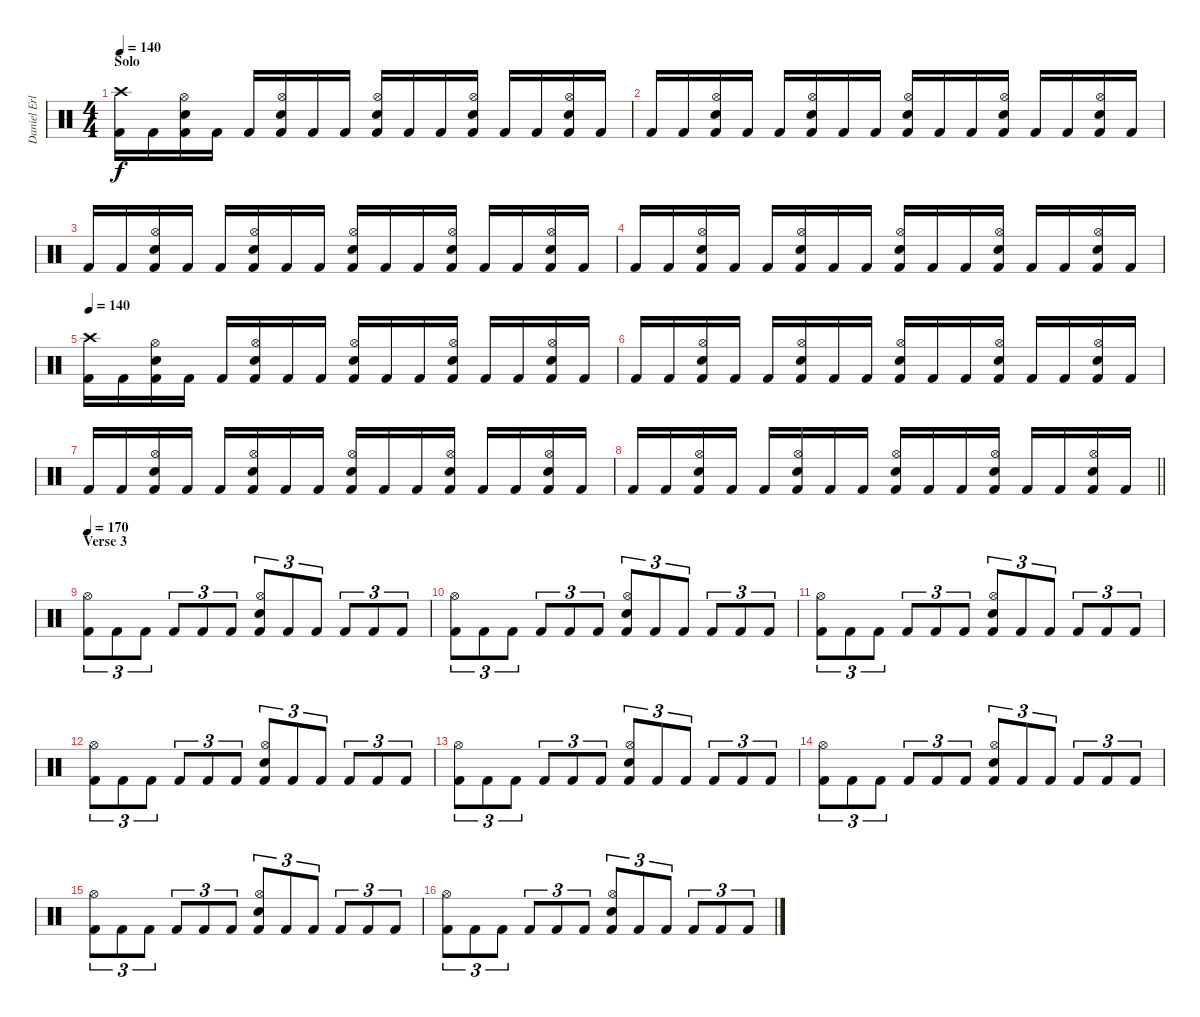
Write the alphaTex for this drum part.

\track ("Daniel Erlandsson" "Daniel Erl") {instrument percussion}
\staff {score}
\articulation defaults
\ts (4 4)
\section ("" "Solo")
\tempo 140
\clef neutral
\ks c
("Crash high (hit)" "Kick (hit) 2").16{dy f} "Kick (hit) 2".16 ("Hi-Hat (open)" "Snare (hit) 2" "Kick (hit) 2").16 "Kick (hit) 2".16 "Kick (hit) 2".16 ("Hi-Hat (open)" "Snare (hit) 2" "Kick (hit) 2").16 "Kick (hit) 2".16 "Kick (hit) 2".16 ("Hi-Hat (open)" "Snare (hit) 2" "Kick (hit) 2").16 "Kick (hit) 2".16 "Kick (hit) 2".16 ("Hi-Hat (open)" "Snare (hit) 2" "Kick (hit) 2").16 "Kick (hit) 2".16 "Kick (hit) 2".16 ("Hi-Hat (open)" "Snare (hit) 2" "Kick (hit) 2").16 "Kick (hit) 2".16 |
"Kick (hit) 2".16 "Kick (hit) 2".16 ("Hi-Hat (open)" "Snare (hit) 2" "Kick (hit) 2").16 "Kick (hit) 2".16 "Kick (hit) 2".16 ("Hi-Hat (open)" "Snare (hit) 2" "Kick (hit) 2").16 "Kick (hit) 2".16 "Kick (hit) 2".16 ("Hi-Hat (open)" "Snare (hit) 2" "Kick (hit) 2").16 "Kick (hit) 2".16 "Kick (hit) 2".16 ("Hi-Hat (open)" "Snare (hit) 2" "Kick (hit) 2").16 "Kick (hit) 2".16 "Kick (hit) 2".16 ("Hi-Hat (open)" "Snare (hit) 2" "Kick (hit) 2").16 "Kick (hit) 2".16 |
"Kick (hit) 2".16 "Kick (hit) 2".16 ("Hi-Hat (open)" "Snare (hit) 2" "Kick (hit) 2").16 "Kick (hit) 2".16 "Kick (hit) 2".16 ("Hi-Hat (open)" "Snare (hit) 2" "Kick (hit) 2").16 "Kick (hit) 2".16 "Kick (hit) 2".16 ("Hi-Hat (open)" "Snare (hit) 2" "Kick (hit) 2").16 "Kick (hit) 2".16 "Kick (hit) 2".16 ("Hi-Hat (open)" "Snare (hit) 2" "Kick (hit) 2").16 "Kick (hit) 2".16 "Kick (hit) 2".16 ("Hi-Hat (open)" "Snare (hit) 2" "Kick (hit) 2").16 "Kick (hit) 2".16 |
"Kick (hit) 2".16 "Kick (hit) 2".16 ("Hi-Hat (open)" "Snare (hit) 2" "Kick (hit) 2").16 "Kick (hit) 2".16 "Kick (hit) 2".16 ("Hi-Hat (open)" "Snare (hit) 2" "Kick (hit) 2").16 "Kick (hit) 2".16 "Kick (hit) 2".16 ("Hi-Hat (open)" "Snare (hit) 2" "Kick (hit) 2").16 "Kick (hit) 2".16 "Kick (hit) 2".16 ("Hi-Hat (open)" "Snare (hit) 2" "Kick (hit) 2").16 "Kick (hit) 2".16 "Kick (hit) 2".16 ("Hi-Hat (open)" "Snare (hit) 2" "Kick (hit) 2").16 "Kick (hit) 2".16 |
\tempo 140
("Crash high (hit)" "Kick (hit) 2").16 "Kick (hit) 2".16 ("Hi-Hat (open)" "Snare (hit) 2" "Kick (hit) 2").16 "Kick (hit) 2".16 "Kick (hit) 2".16 ("Hi-Hat (open)" "Snare (hit) 2" "Kick (hit) 2").16 "Kick (hit) 2".16 "Kick (hit) 2".16 ("Hi-Hat (open)" "Snare (hit) 2" "Kick (hit) 2").16 "Kick (hit) 2".16 "Kick (hit) 2".16 ("Hi-Hat (open)" "Snare (hit) 2" "Kick (hit) 2").16 "Kick (hit) 2".16 "Kick (hit) 2".16 ("Hi-Hat (open)" "Snare (hit) 2" "Kick (hit) 2").16 "Kick (hit) 2".16 |
"Kick (hit) 2".16 "Kick (hit) 2".16 ("Hi-Hat (open)" "Snare (hit) 2" "Kick (hit) 2").16 "Kick (hit) 2".16 "Kick (hit) 2".16 ("Hi-Hat (open)" "Snare (hit) 2" "Kick (hit) 2").16 "Kick (hit) 2".16 "Kick (hit) 2".16 ("Hi-Hat (open)" "Snare (hit) 2" "Kick (hit) 2").16 "Kick (hit) 2".16 "Kick (hit) 2".16 ("Hi-Hat (open)" "Snare (hit) 2" "Kick (hit) 2").16 "Kick (hit) 2".16 "Kick (hit) 2".16 ("Hi-Hat (open)" "Snare (hit) 2" "Kick (hit) 2").16 "Kick (hit) 2".16 |
"Kick (hit) 2".16 "Kick (hit) 2".16 ("Hi-Hat (open)" "Snare (hit) 2" "Kick (hit) 2").16 "Kick (hit) 2".16 "Kick (hit) 2".16 ("Hi-Hat (open)" "Snare (hit) 2" "Kick (hit) 2").16 "Kick (hit) 2".16 "Kick (hit) 2".16 ("Hi-Hat (open)" "Snare (hit) 2" "Kick (hit) 2").16 "Kick (hit) 2".16 "Kick (hit) 2".16 ("Hi-Hat (open)" "Snare (hit) 2" "Kick (hit) 2").16 "Kick (hit) 2".16 "Kick (hit) 2".16 ("Hi-Hat (open)" "Snare (hit) 2" "Kick (hit) 2").16 "Kick (hit) 2".16 |
\barLineRight lightlight "Kick (hit) 2".16 "Kick (hit) 2".16
("Hi-Hat (open)" "Snare (hit) 2" "Kick (hit) 2").16 "Kick (hit) 2".16 "Kick (hit) 2".16 ("Hi-Hat (open)" "Snare (hit) 2" "Kick (hit) 2").16 "Kick (hit) 2".16 "Kick (hit) 2".16 ("Hi-Hat (open)" "Snare (hit) 2" "Kick (hit) 2").16 "Kick (hit) 2".16 "Kick (hit) 2".16 ("Hi-Hat (open)" "Snare (hit) 2" "Kick (hit) 2").16 "Kick (hit) 2".16 "Kick (hit) 2".16 ("Hi-Hat (open)" "Snare (hit) 2" "Kick (hit) 2").16 "Kick (hit) 2".16 |
\section ("" "Verse 3")
\tempo 170
("Hi-Hat (open)" "Kick (hit) 2").8{tu (3 2)} "Kick (hit) 2".8{tu (3 2)} "Kick (hit) 2".8{tu (3 2)} "Kick (hit) 2".8{tu (3 2)} "Kick (hit) 2".8{tu (3 2)} "Kick (hit) 2".8{tu (3 2)} ("Hi-Hat (open)" "Snare (hit) 2" "Kick (hit) 2").8{tu (3 2)} "Kick (hit) 2".8{tu (3 2)} "Kick (hit) 2".8{tu (3 2)} "Kick (hit) 2".8{tu (3 2)} "Kick (hit) 2".8{tu (3 2)} "Kick (hit) 2".8{tu (3 2)} |
("Hi-Hat (open)" "Kick (hit) 2").8{tu (3 2)} "Kick (hit) 2".8{tu (3 2)} "Kick (hit) 2".8{tu (3 2)} "Kick (hit) 2".8{tu (3 2)} "Kick (hit) 2".8{tu (3 2)} "Kick (hit) 2".8{tu (3 2)} ("Hi-Hat (open)" "Snare (hit) 2" "Kick (hit) 2").8{tu (3 2)} "Kick (hit) 2".8{tu (3 2)} "Kick (hit) 2".8{tu (3 2)} "Kick (hit) 2".8{tu (3 2)} "Kick (hit) 2".8{tu (3 2)} "Kick (hit) 2".8{tu (3 2)} |
("Hi-Hat (open)" "Kick (hit) 2").8{tu (3 2)} "Kick (hit) 2".8{tu (3 2)} "Kick (hit) 2".8{tu (3 2)} "Kick (hit) 2".8{tu (3 2)} "Kick (hit) 2".8{tu (3 2)} "Kick (hit) 2".8{tu (3 2)} ("Hi-Hat (open)" "Snare (hit) 2" "Kick (hit) 2").8{tu (3 2)} "Kick (hit) 2".8{tu (3 2)} "Kick (hit) 2".8{tu (3 2)} "Kick (hit) 2".8{tu (3 2)} "Kick (hit) 2".8{tu (3 2)} "Kick (hit) 2".8{tu (3 2)} |
("Hi-Hat (open)" "Kick (hit) 2").8{tu (3 2)} "Kick (hit) 2".8{tu (3 2)} "Kick (hit) 2".8{tu (3 2)} "Kick (hit) 2".8{tu (3 2)} "Kick (hit) 2".8{tu (3 2)} "Kick (hit) 2".8{tu (3 2)} ("Hi-Hat (open)" "Snare (hit) 2" "Kick (hit) 2").8{tu (3 2)} "Kick (hit) 2".8{tu (3 2)} "Kick (hit) 2".8{tu (3 2)} "Kick (hit) 2".8{tu (3 2)} "Kick (hit) 2".8{tu (3 2)} "Kick (hit) 2".8{tu (3 2)} |
("Hi-Hat (open)" "Kick (hit) 2").8{tu (3 2)} "Kick (hit) 2".8{tu (3 2)} "Kick (hit) 2".8{tu (3 2)} "Kick (hit) 2".8{tu (3 2)} "Kick (hit) 2".8{tu (3 2)} "Kick (hit) 2".8{tu (3 2)} ("Hi-Hat (open)" "Snare (hit) 2" "Kick (hit) 2").8{tu (3 2)} "Kick (hit) 2".8{tu (3 2)} "Kick (hit) 2".8{tu (3 2)} "Kick (hit) 2".8{tu (3 2)} "Kick (hit) 2".8{tu (3 2)} "Kick (hit) 2".8{tu (3 2)} |
("Hi-Hat (open)" "Kick (hit) 2").8{tu (3 2)} "Kick (hit) 2".8{tu (3 2)} "Kick (hit) 2".8{tu (3 2)} "Kick (hit) 2".8{tu (3 2)} "Kick (hit) 2".8{tu (3 2)} "Kick (hit) 2".8{tu (3 2)} ("Hi-Hat (open)" "Snare (hit) 2" "Kick (hit) 2").8{tu (3 2)} "Kick (hit) 2".8{tu (3 2)} "Kick (hit) 2".8{tu (3 2)} "Kick (hit) 2".8{tu (3 2)} "Kick (hit) 2".8{tu (3 2)} "Kick (hit) 2".8{tu (3 2)} |
("Hi-Hat (open)" "Kick (hit) 2").8{tu (3 2)} "Kick (hit) 2".8{tu (3 2)} "Kick (hit) 2".8{tu (3 2)} "Kick (hit) 2".8{tu (3 2)} "Kick (hit) 2".8{tu (3 2)} "Kick (hit) 2".8{tu (3 2)} ("Hi-Hat (open)" "Snare (hit) 2" "Kick (hit) 2").8{tu (3 2)} "Kick (hit) 2".8{tu (3 2)} "Kick (hit) 2".8{tu (3 2)} "Kick (hit) 2".8{tu (3 2)} "Kick (hit) 2".8{tu (3 2)} "Kick (hit) 2".8{tu (3 2)} |
("Hi-Hat (open)" "Kick (hit) 2").8{tu (3 2)} "Kick (hit) 2".8{tu (3 2)} "Kick (hit) 2".8{tu (3 2)} "Kick (hit) 2".8{tu (3 2)} "Kick (hit) 2".8{tu (3 2)} "Kick (hit) 2".8{tu (3 2)} ("Hi-Hat (open)" "Snare (hit) 2" "Kick (hit) 2").8{tu (3 2)} "Kick (hit) 2".8{tu (3 2)} "Kick (hit) 2".8{tu (3 2)} "Kick (hit) 2".8{tu (3 2)} "Kick (hit) 2".8{tu (3 2)} "Kick (hit) 2".8{tu (3 2)}
